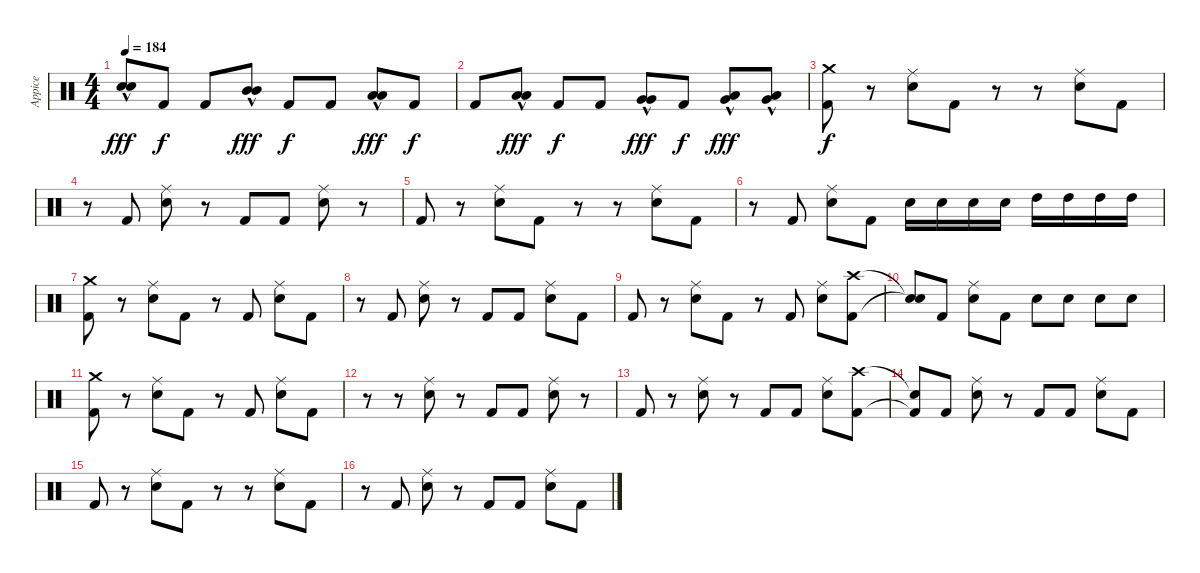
\track ("Appice" "Appice") {instrument percussion}
\staff {score}
\articulation defaults
\ts (4 4)
\tempo 184
\clef neutral
\ks c
("Snare (hit) 2"{hac} "Snare (hit) 2"{hac}).8{dy fff} "Kick (hit) 2".8{dy f} "Kick (hit) 2".8 ("Mid Tom (hit)"{hac} "Mid Tom (hit)"{hac}).8{dy fff} "Kick (hit) 2".8{dy f} "Kick (hit) 2".8 ("Low Tom (hit)"{hac} "Low Tom (hit)"{hac}).8{dy fff} "Kick (hit) 2".8{dy f} |
"Kick (hit) 2".8 ("Low Tom (hit)"{hac} "Low Tom (hit)"{hac}).8{dy fff} "Kick (hit) 2".8{dy f} "Kick (hit) 2".8 ("Very Low Tom (hit)"{hac} "Very Low Tom (hit)"{hac}).8{dy fff} "Kick (hit) 2".8{dy f} ("Low Floor Tom (hit)"{hac} "Very Low Tom (hit)"{hac}).8{dy fff} ("Low Floor Tom (hit)"{hac} "Very Low Tom (hit)"{hac}).8 |
("Crash medium (hit)" "Kick (hit) 2").8{dy f} r.8 ("Ride (middle)" "Snare (hit) 2").8 "Kick (hit) 2".8 r.8 r.8 ("Ride (middle)" "Snare (hit) 2").8 "Kick (hit) 2".8 |
r.8 "Kick (hit) 2".8 ("Ride (middle)" "Snare (hit) 2").8 r.8 "Kick (hit) 2".8 "Kick (hit) 2".8 ("Ride (middle)" "Snare (hit) 2").8 r.8 |
"Kick (hit) 2".8 r.8 ("Ride (middle)" "Snare (hit) 2").8 "Kick (hit) 2".8 r.8 r.8 ("Ride (middle)" "Snare (hit) 2").8 "Kick (hit) 2".8 |
r.8 "Kick (hit) 2".8 ("Ride (middle)" "Snare (hit) 2").8 "Kick (hit) 2".8 "Snare (hit) 2".16 "Snare (hit) 2".16 "Snare (hit) 2".16 "Snare (hit) 2".16 "High Tom (hit)".16 "High Tom (hit)".16 "High Tom (hit)".16 "High Tom (hit)".16 |
("Crash medium (hit)" "Kick (hit) 2").8 r.8 ("Ride (middle)" "Snare (hit) 2").8 "Kick (hit) 2".8 r.8 "Kick (hit) 2".8 ("Ride (middle)" "Snare (hit) 2").8 "Kick (hit) 2".8 |
r.8 "Kick (hit) 2".8 ("Ride (middle)" "Snare (hit) 2").8 r.8 "Kick (hit) 2".8 "Kick (hit) 2".8 ("Ride (middle)" "Snare (hit) 2").8 "Kick (hit) 2".8 |
"Kick (hit) 2".8 r.8 ("Ride (middle)" "Snare (hit) 2").8 "Kick (hit) 2".8 r.8 "Kick (hit) 2".8 ("Ride (middle)" "Snare (hit) 2").8 ("Crash high (hit)" "Kick (hit) 2").8 |
("Snare (hit)"{t} "Snare (hit)"{t}).8 "Kick (hit) 2".8 ("Ride (middle)" "Snare (hit) 2").8 "Kick (hit) 2".8 "Snare (hit) 2".8 "Snare (hit) 2".8 "Snare (hit) 2".8 "Snare (hit) 2".8 |
("Crash medium (hit)" "Kick (hit) 2").8 r.8 ("Ride (middle)" "Snare (hit) 2").8 "Kick (hit) 2".8 r.8 "Kick (hit) 2".8 ("Ride (middle)" "Snare (hit) 2").8 "Kick (hit) 2".8 |
r.8 r.8 ("Ride (middle)" "Snare (hit) 2").8 r.8 "Kick (hit) 2".8 "Kick (hit) 2".8 ("Ride (middle)" "Snare (hit) 2").8 r.8 |
"Kick (hit) 2".8 r.8 ("Ride (middle)" "Snare (hit) 2").8 r.8 "Kick (hit) 2".8 "Kick (hit) 2".8 ("Ride (middle)" "Snare (hit) 2").8 ("Crash high (hit)" "Kick (hit) 2").8 |
("Snare (hit)"{t} "Kick (hit) 2"{t}).8 "Kick (hit) 2".8 ("Ride (middle)" "Snare (hit) 2").8 r.8 "Kick (hit) 2".8 "Kick (hit) 2".8 ("Ride (middle)" "Snare (hit) 2").8 "Kick (hit) 2".8 |
"Kick (hit) 2".8 r.8 ("Ride (middle)" "Snare (hit) 2").8 "Kick (hit) 2".8 r.8 r.8 ("Ride (middle)" "Snare (hit) 2").8 "Kick (hit) 2".8 |
r.8 "Kick (hit) 2".8 ("Ride (middle)" "Snare (hit) 2").8 r.8 "Kick (hit) 2".8 "Kick (hit) 2".8 ("Ride (middle)" "Snare (hit) 2").8 "Kick (hit) 2".8
